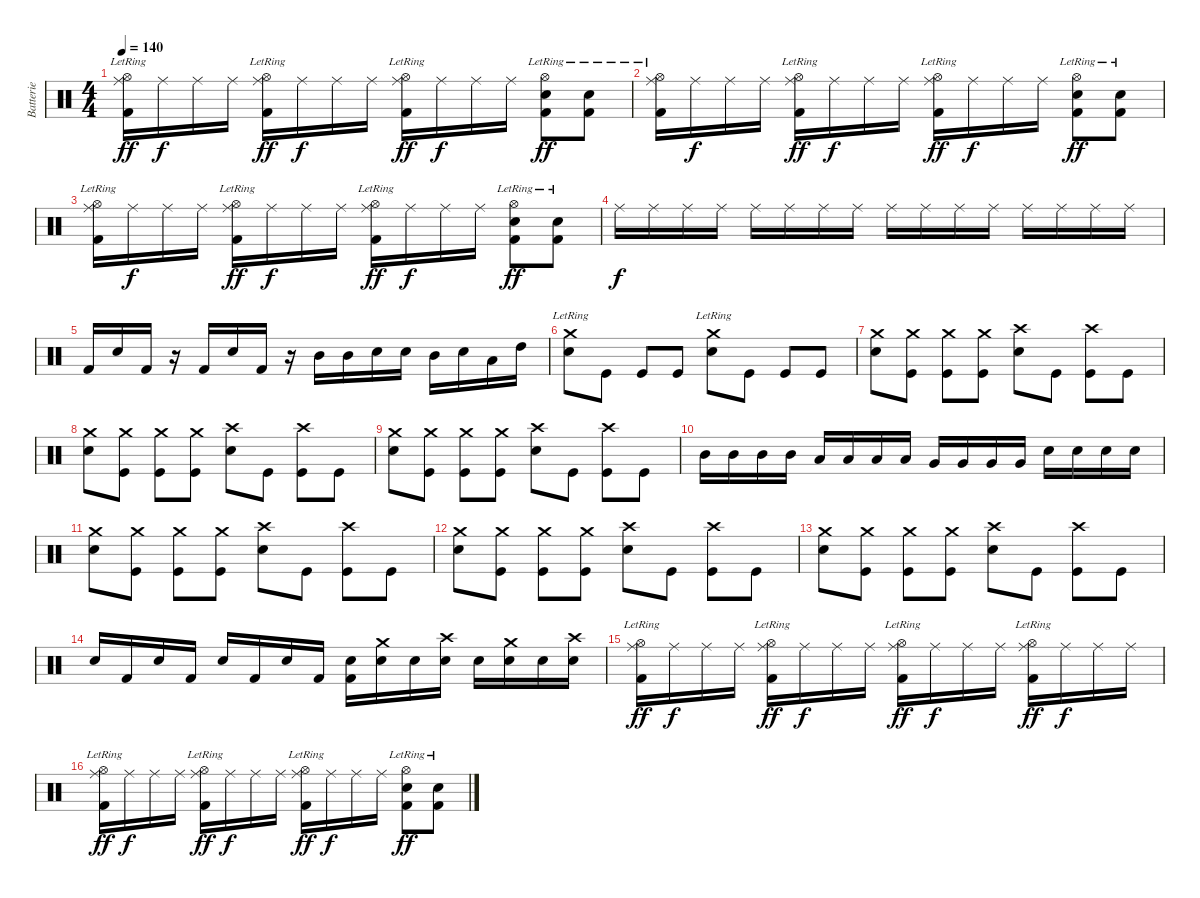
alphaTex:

\track ("Batterie" "Batterie") {instrument percussion}
\staff {score}
\articulation defaults
\ts (4 4)
\tempo 140
\clef neutral
\ks c
("Ride (middle)" "Hi-Hat (open)"{lr} "Kick (hit) 2"{lr}).16{dy ff} "Ride (middle)".16{dy f} "Ride (middle)".16 "Ride (middle)".16 ("Ride (middle)" "Hi-Hat (open)"{lr} "Kick (hit) 2"{lr}).16{dy ff} "Ride (middle)".16{dy f} "Ride (middle)".16 "Ride (middle)".16 ("Ride (middle)" "Hi-Hat (open)"{lr} "Kick (hit) 2"{lr}).16{dy ff} "Ride (middle)".16{dy f} "Ride (middle)".16 "Ride (middle)".16 ("Snare (hit) 2" "Hi-Hat (open)" "Kick (hit) 2"{lr}).8{dy ff} ("Snare (hit) 2" "Kick (hit) 2"{lr}).8 |
("Ride (middle)" "Hi-Hat (open)"{lr} "Kick (hit) 2"{lr}).16 "Ride (middle)".16{dy f} "Ride (middle)".16 "Ride (middle)".16 ("Ride (middle)" "Hi-Hat (open)"{lr} "Kick (hit) 2"{lr}).16{dy ff} "Ride (middle)".16{dy f} "Ride (middle)".16 "Ride (middle)".16 ("Ride (middle)" "Hi-Hat (open)"{lr} "Kick (hit) 2"{lr}).16{dy ff} "Ride (middle)".16{dy f} "Ride (middle)".16 "Ride (middle)".16 ("Snare (hit) 2" "Hi-Hat (open)" "Kick (hit) 2"{lr}).8{dy ff} ("Snare (hit) 2" "Kick (hit) 2"{lr}).8 |
("Ride (middle)" "Hi-Hat (open)"{lr} "Kick (hit) 2"{lr}).16 "Ride (middle)".16{dy f} "Ride (middle)".16 "Ride (middle)".16 ("Ride (middle)" "Hi-Hat (open)"{lr} "Kick (hit) 2"{lr}).16{dy ff} "Ride (middle)".16{dy f} "Ride (middle)".16 "Ride (middle)".16 ("Ride (middle)" "Hi-Hat (open)"{lr} "Kick (hit) 2"{lr}).16{dy ff} "Ride (middle)".16{dy f} "Ride (middle)".16 "Ride (middle)".16 ("Snare (hit) 2" "Hi-Hat (open)" "Kick (hit) 2"{lr}).8{dy ff} ("Snare (hit) 2" "Kick (hit) 2"{lr}).8 |
"Ride (middle)".16{dy f} "Ride (middle)".16 "Ride (middle)".16 "Ride (middle)".16 "Ride (middle)".16 "Ride (middle)".16 "Ride (middle)".16 "Ride (middle)".16 "Ride (middle)".16 "Ride (middle)".16 "Ride (middle)".16 "Ride (middle)".16 "Ride (middle)".16 "Ride (middle)".16 "Ride (middle)".16 "Ride (middle)".16 |
"Kick (hit) 2".16 "Snare (hit) 2".16 "Kick (hit) 2".16 r.16 "Kick (hit) 2".16 "Snare (hit) 2".16 "Kick (hit) 2".16 r.16 "Mid Tom (hit)".16 "Mid Tom (hit)".16 "Snare (hit) 2".16 "Snare (hit) 2".16 "Mid Tom (hit)".16 "Snare (hit) 2".16 "Low Tom (hit)".16 "High Tom (hit)".16 |
("Crash medium (hit)"{lr} "Snare (hit) 2").8 "Kick (hit)".8 "Kick (hit)".8 "Kick (hit)".8 ("Crash medium (hit)"{lr} "Snare (hit) 2").8 "Kick (hit)".8 "Kick (hit)".8 "Kick (hit)".8 |
("Crash medium (hit)" "Snare (hit) 2").8 ("Crash medium (hit)" "Kick (hit)").8 ("Crash medium (hit)" "Kick (hit)").8 ("Crash medium (hit)" "Kick (hit)").8 ("Crash high (hit)" "Snare (hit) 2").8 "Kick (hit)".8 ("Crash high (hit)" "Kick (hit)").8 "Kick (hit)".8 |
("Crash medium (hit)" "Snare (hit) 2").8 ("Crash medium (hit)" "Kick (hit)").8 ("Crash medium (hit)" "Kick (hit)").8 ("Crash medium (hit)" "Kick (hit)").8 ("Crash high (hit)" "Snare (hit) 2").8 "Kick (hit)".8 ("Crash high (hit)" "Kick (hit)").8 "Kick (hit)".8 |
("Crash medium (hit)" "Snare (hit) 2").8 ("Crash medium (hit)" "Kick (hit)").8 ("Crash medium (hit)" "Kick (hit)").8 ("Crash medium (hit)" "Kick (hit)").8 ("Crash high (hit)" "Snare (hit) 2").8 "Kick (hit)".8 ("Crash high (hit)" "Kick (hit)").8 "Kick (hit)".8 |
"Mid Tom (hit)".16 "Mid Tom (hit)".16 "Mid Tom (hit)".16 "Mid Tom (hit)".16 "Low Tom (hit)".16 "Low Tom (hit)".16 "Low Tom (hit)".16 "Low Tom (hit)".16 "Very Low Tom (hit)".16 "Very Low Tom (hit)".16 "Very Low Tom (hit)".16 "Very Low Tom (hit)".16 "Snare (hit) 2".16 "Snare (hit) 2".16 "Snare (hit) 2".16 "Snare (hit) 2".16 |
("Crash medium (hit)" "Snare (hit) 2").8 ("Crash medium (hit)" "Kick (hit)").8 ("Crash medium (hit)" "Kick (hit)").8 ("Crash medium (hit)" "Kick (hit)").8 ("Crash high (hit)" "Snare (hit) 2").8 "Kick (hit)".8 ("Crash high (hit)" "Kick (hit)").8 "Kick (hit)".8 |
("Crash medium (hit)" "Snare (hit) 2").8 ("Crash medium (hit)" "Kick (hit)").8 ("Crash medium (hit)" "Kick (hit)").8 ("Crash medium (hit)" "Kick (hit)").8 ("Crash high (hit)" "Snare (hit) 2").8 "Kick (hit)".8 ("Crash high (hit)" "Kick (hit)").8 "Kick (hit)".8 |
("Crash medium (hit)" "Snare (hit) 2").8 ("Crash medium (hit)" "Kick (hit)").8 ("Crash medium (hit)" "Kick (hit)").8 ("Crash medium (hit)" "Kick (hit)").8 ("Crash high (hit)" "Snare (hit) 2").8 "Kick (hit)".8 ("Crash high (hit)" "Kick (hit)").8 "Kick (hit)".8 |
"Snare (hit) 2".16 "Kick (hit) 2".16 "Snare (hit) 2".16 "Kick (hit) 2".16 "Snare (hit) 2".16 "Kick (hit) 2".16 "Snare (hit) 2".16 "Kick (hit) 2".16 ("Snare (hit) 2" "Kick (hit) 2").16 ("Crash medium (hit)" "Snare (hit) 2").16 "Snare (hit) 2".16 ("Crash high (hit)" "Snare (hit) 2").16 "Snare (hit) 2".16 ("Crash medium (hit)" "Snare (hit) 2").16 "Snare (hit) 2".16 ("Crash high (hit)" "Snare (hit) 2").16 |
("Ride (middle)" "Hi-Hat (open)"{lr} "Kick (hit) 2"{lr}).16{dy ff} "Ride (middle)".16{dy f} "Ride (middle)".16 "Ride (middle)".16 ("Ride (middle)" "Hi-Hat (open)"{lr} "Kick (hit) 2"{lr}).16{dy ff} "Ride (middle)".16{dy f} "Ride (middle)".16 "Ride (middle)".16 ("Ride (middle)" "Hi-Hat (open)"{lr} "Kick (hit) 2"{lr}).16{dy ff} "Ride (middle)".16{dy f} "Ride (middle)".16 "Ride (middle)".16 ("Ride (middle)" "Hi-Hat (open)"{lr} "Kick (hit) 2"{lr}).16{dy ff} "Ride (middle)".16{dy f} "Ride (middle)".16 "Ride (middle)".16 |
("Ride (middle)" "Hi-Hat (open)"{lr} "Kick (hit) 2"{lr}).16{dy ff} "Ride (middle)".16{dy f} "Ride (middle)".16 "Ride (middle)".16 ("Ride (middle)" "Hi-Hat (open)"{lr} "Kick (hit) 2"{lr}).16{dy ff} "Ride (middle)".16{dy f} "Ride (middle)".16 "Ride (middle)".16 ("Ride (middle)" "Hi-Hat (open)"{lr} "Kick (hit) 2"{lr}).16{dy ff} "Ride (middle)".16{dy f} "Ride (middle)".16 "Ride (middle)".16 ("Snare (hit) 2" "Hi-Hat (open)" "Kick (hit) 2"{lr}).8{dy ff} ("Snare (hit) 2" "Kick (hit) 2"{lr}).8
